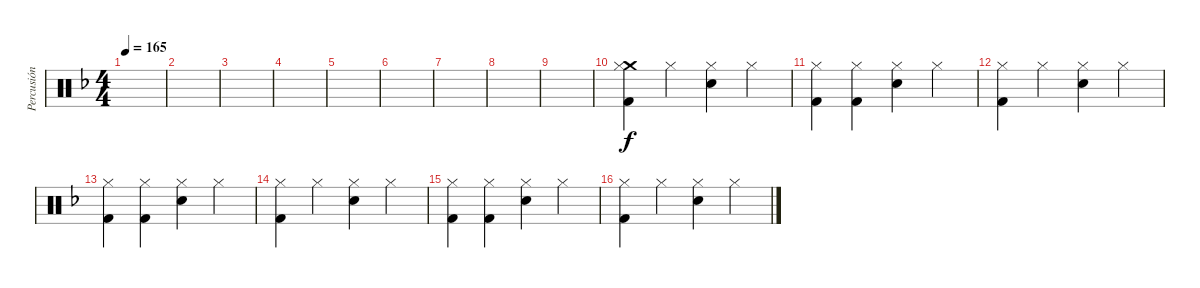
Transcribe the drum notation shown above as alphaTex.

\track ("Percusión" "Percusión") {instrument percussion}
\staff {score}
\articulation defaults
\ts (4 4)
\tempo 165
\clef neutral
\ks f
|
|
|
|
|
|
|
|
|
("Crash medium (hit)" "Hi-Hat (closed)" "Kick (hit) 2").4 "Hi-Hat (closed)".4 ("Hi-Hat (closed)" "Electric Snare (hit)").4 "Hi-Hat (closed)".4 |
("Hi-Hat (closed)" "Kick (hit) 2").4 ("Hi-Hat (closed)" "Kick (hit) 2").4 ("Hi-Hat (closed)" "Electric Snare (hit)").4 "Hi-Hat (closed)".4 |
("Hi-Hat (closed)" "Kick (hit) 2").4 "Hi-Hat (closed)".4 ("Hi-Hat (closed)" "Electric Snare (hit)").4 "Hi-Hat (closed)".4 |
("Hi-Hat (closed)" "Kick (hit) 2").4 ("Hi-Hat (closed)" "Kick (hit) 2").4 ("Hi-Hat (closed)" "Electric Snare (hit)").4 "Hi-Hat (closed)".4 |
("Hi-Hat (closed)" "Kick (hit) 2").4 "Hi-Hat (closed)".4 ("Hi-Hat (closed)" "Electric Snare (hit)").4 "Hi-Hat (closed)".4 |
("Hi-Hat (closed)" "Kick (hit) 2").4 ("Hi-Hat (closed)" "Kick (hit) 2").4 ("Hi-Hat (closed)" "Electric Snare (hit)").4 "Hi-Hat (closed)".4 |
("Hi-Hat (closed)" "Kick (hit) 2").4 "Hi-Hat (closed)".4 ("Hi-Hat (closed)" "Electric Snare (hit)").4 "Hi-Hat (closed)".4
